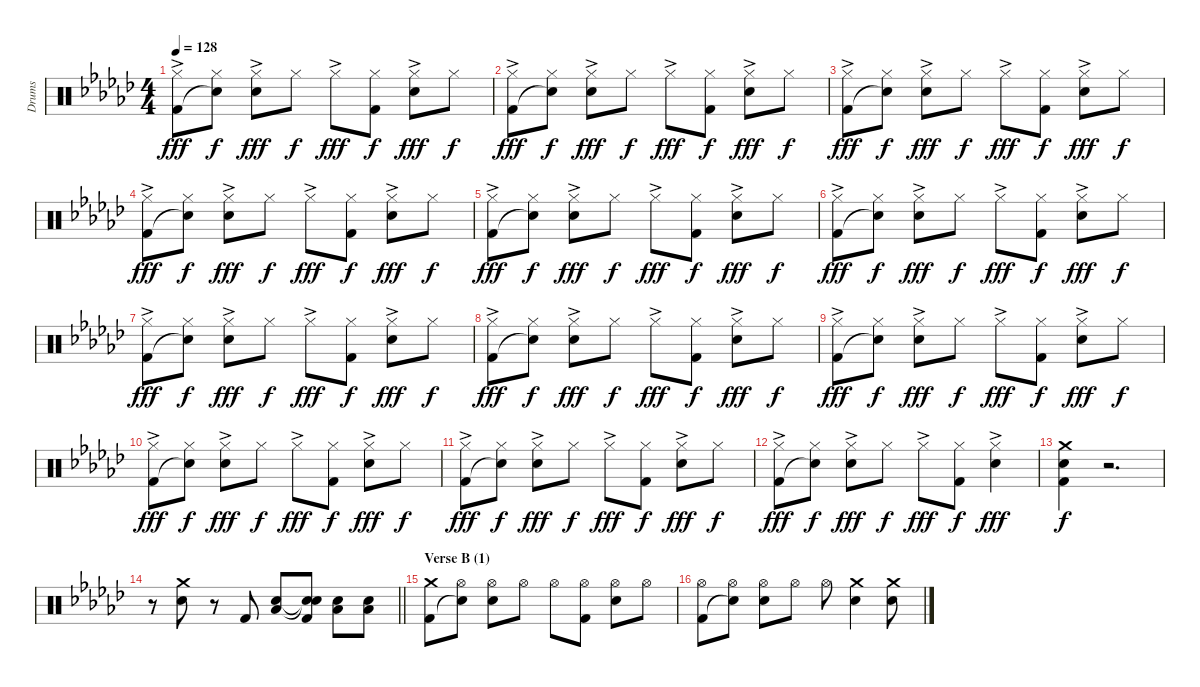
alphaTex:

\track ("Drums" "Drums") {instrument percussion}
\staff {score}
\articulation defaults
\ts (4 4)
\tempo 128
\clef neutral
\ks gb
("Hi-Hat (closed)"{ac} "Kick (hit) 2").8{dy fff} ("Hi-Hat (closed)" "Snare (hit)"{t}).8{dy f} ("Hi-Hat (closed)"{ac} "Electric Snare (hit)").8{dy fff} "Hi-Hat (closed)".8{dy f} "Hi-Hat (closed)"{ac}.8{dy fff} ("Hi-Hat (closed)" "Kick (hit) 2").8{dy f} ("Hi-Hat (closed)"{ac} "Electric Snare (hit)").8{dy fff} "Hi-Hat (closed)".8{dy f} |
("Hi-Hat (closed)"{ac} "Kick (hit) 2").8{dy fff} ("Hi-Hat (closed)" "Snare (hit)"{t}).8{dy f} ("Hi-Hat (closed)"{ac} "Electric Snare (hit)").8{dy fff} "Hi-Hat (closed)".8{dy f} "Hi-Hat (closed)"{ac}.8{dy fff} ("Hi-Hat (closed)" "Kick (hit) 2").8{dy f} ("Hi-Hat (closed)"{ac} "Electric Snare (hit)").8{dy fff} "Hi-Hat (closed)".8{dy f} |
("Hi-Hat (closed)"{ac} "Kick (hit) 2").8{dy fff} ("Hi-Hat (closed)" "Snare (hit)"{t}).8{dy f} ("Hi-Hat (closed)"{ac} "Electric Snare (hit)").8{dy fff} "Hi-Hat (closed)".8{dy f} "Hi-Hat (closed)"{ac}.8{dy fff} ("Hi-Hat (closed)" "Kick (hit) 2").8{dy f} ("Hi-Hat (closed)"{ac} "Electric Snare (hit)").8{dy fff} "Hi-Hat (closed)".8{dy f} |
("Hi-Hat (closed)"{ac} "Kick (hit) 2").8{dy fff} ("Hi-Hat (closed)" "Snare (hit)"{t}).8{dy f} ("Hi-Hat (closed)"{ac} "Electric Snare (hit)").8{dy fff} "Hi-Hat (closed)".8{dy f} "Hi-Hat (closed)"{ac}.8{dy fff} ("Hi-Hat (closed)" "Kick (hit) 2").8{dy f} ("Hi-Hat (closed)"{ac} "Electric Snare (hit)").8{dy fff} "Hi-Hat (closed)".8{dy f} |
("Hi-Hat (closed)"{ac} "Kick (hit) 2").8{dy fff} ("Hi-Hat (closed)" "Snare (hit)"{t}).8{dy f} ("Hi-Hat (closed)"{ac} "Electric Snare (hit)").8{dy fff} "Hi-Hat (closed)".8{dy f} "Hi-Hat (closed)"{ac}.8{dy fff} ("Hi-Hat (closed)" "Kick (hit) 2").8{dy f} ("Hi-Hat (closed)"{ac} "Electric Snare (hit)").8{dy fff} "Hi-Hat (closed)".8{dy f} |
("Hi-Hat (closed)"{ac} "Kick (hit) 2").8{dy fff} ("Hi-Hat (closed)" "Snare (hit)"{t}).8{dy f} ("Hi-Hat (closed)"{ac} "Electric Snare (hit)").8{dy fff} "Hi-Hat (closed)".8{dy f} "Hi-Hat (closed)"{ac}.8{dy fff} ("Hi-Hat (closed)" "Kick (hit) 2").8{dy f} ("Hi-Hat (closed)"{ac} "Electric Snare (hit)").8{dy fff} "Hi-Hat (closed)".8{dy f} |
("Hi-Hat (closed)"{ac} "Kick (hit) 2").8{dy fff} ("Hi-Hat (closed)" "Snare (hit)"{t}).8{dy f} ("Hi-Hat (closed)"{ac} "Electric Snare (hit)").8{dy fff} "Hi-Hat (closed)".8{dy f} "Hi-Hat (closed)"{ac}.8{dy fff} ("Hi-Hat (closed)" "Kick (hit) 2").8{dy f} ("Hi-Hat (closed)"{ac} "Electric Snare (hit)").8{dy fff} "Hi-Hat (closed)".8{dy f} |
("Hi-Hat (closed)"{ac} "Kick (hit) 2").8{dy fff} ("Hi-Hat (closed)" "Snare (hit)"{t}).8{dy f} ("Hi-Hat (closed)"{ac} "Electric Snare (hit)").8{dy fff} "Hi-Hat (closed)".8{dy f} "Hi-Hat (closed)"{ac}.8{dy fff} ("Hi-Hat (closed)" "Kick (hit) 2").8{dy f} ("Hi-Hat (closed)"{ac} "Electric Snare (hit)").8{dy fff} "Hi-Hat (closed)".8{dy f} |
("Hi-Hat (closed)"{ac} "Kick (hit) 2").8{dy fff} ("Hi-Hat (closed)" "Snare (hit)"{t}).8{dy f} ("Hi-Hat (closed)"{ac} "Electric Snare (hit)").8{dy fff} "Hi-Hat (closed)".8{dy f} "Hi-Hat (closed)"{ac}.8{dy fff} ("Hi-Hat (closed)" "Kick (hit) 2").8{dy f} ("Hi-Hat (closed)"{ac} "Electric Snare (hit)").8{dy fff} "Hi-Hat (closed)".8{dy f} |
("Hi-Hat (closed)"{ac} "Kick (hit) 2").8{dy fff} ("Hi-Hat (closed)" "Snare (hit)"{t}).8{dy f} ("Hi-Hat (closed)"{ac} "Electric Snare (hit)").8{dy fff} "Hi-Hat (closed)".8{dy f} "Hi-Hat (closed)"{ac}.8{dy fff} ("Hi-Hat (closed)" "Kick (hit) 2").8{dy f} ("Hi-Hat (closed)"{ac} "Electric Snare (hit)").8{dy fff} "Hi-Hat (closed)".8{dy f} |
("Hi-Hat (closed)"{ac} "Kick (hit) 2").8{dy fff} ("Hi-Hat (closed)" "Snare (hit)"{t}).8{dy f} ("Hi-Hat (closed)"{ac} "Electric Snare (hit)").8{dy fff} "Hi-Hat (closed)".8{dy f} "Hi-Hat (closed)"{ac}.8{dy fff} ("Hi-Hat (closed)" "Kick (hit) 2").8{dy f} ("Hi-Hat (closed)"{ac} "Electric Snare (hit)").8{dy fff} "Hi-Hat (closed)".8{dy f} |
("Hi-Hat (closed)"{ac} "Kick (hit) 2").8{dy fff} ("Hi-Hat (closed)" "Snare (hit)"{t}).8{dy f} ("Hi-Hat (closed)"{ac} "Electric Snare (hit)").8{dy fff} "Hi-Hat (closed)".8{dy f} "Hi-Hat (closed)"{ac}.8{dy fff} ("Hi-Hat (closed)" "Kick (hit) 2").8{dy f} ("Hi-Hat (closed)"{ac} "Electric Snare (hit)").4{dy fff} |
("Crash medium (hit)" "Electric Snare (hit)" "Kick (hit) 2").4{dy f} r.2{d} |
\barLineRight lightlight
r.8 ("Crash medium (hit)" "Electric Snare (hit)").8 r.8 "Kick (hit) 2".8 ("Electric Snare (hit)" "Low Floor Tom (hit)").8 ("Snare (hit)"{t} "Snare (hit)"{t} "Kick (hit) 2").8 ("Electric Snare (hit)" "Low Floor Tom (hit)").8 ("Electric Snare (hit)" "Low Floor Tom (hit)").8 |
\section ("" "Verse B (1)")
("Crash medium (hit)" "Kick (hit) 2").8 ("Hi-Hat (open)" "Snare (hit)"{t}).8 ("Hi-Hat (open)" "Electric Snare (hit)").8 "Hi-Hat (open)".8 "Hi-Hat (open)".8 ("Hi-Hat (open)" "Kick (hit) 2").8 ("Hi-Hat (open)" "Electric Snare (hit)").8 "Hi-Hat (open)".8 |
("Hi-Hat (open)" "Kick (hit) 2").8 ("Hi-Hat (open)" "Snare (hit)"{t}).8 ("Hi-Hat (open)" "Electric Snare (hit)").8 "Hi-Hat (open)".8 "Hi-Hat (open)".8 ("Crash medium (hit)" "Electric Snare (hit)").4 ("Crash medium (hit)" "Electric Snare (hit)").8
